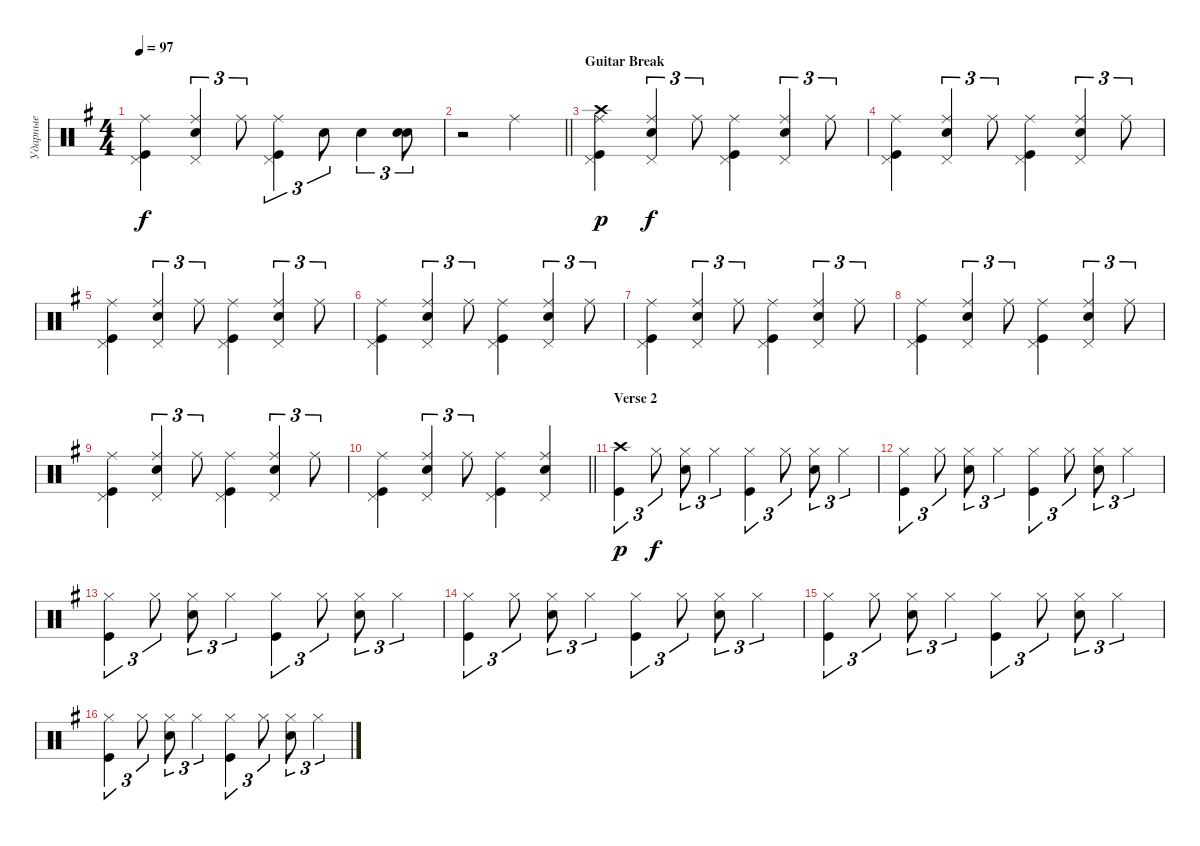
\track ("Ударные" "Ударные") {instrument percussion}
\staff {score}
\articulation defaults
\ts (4 4)
\tempo 97
\clef neutral
\ks eminor
("Kick (hit)" "Pedal Hi-Hat (hit)" "Ride (middle)").4{dy f} ("Snare (hit) 2" "Pedal Hi-Hat (hit)" "Ride (middle)").4{tu (3 2)} "Ride (middle)".8{tu (3 2)} ("Kick (hit)" "Pedal Hi-Hat (hit)" "Ride (middle)").4{tu (3 2)} "Snare (hit) 2".8{tu (3 2)} "Snare (hit) 2".4{tu (3 2)} ("Snare (hit) 2" "Snare (hit) 2").8{tu (3 2) bd 480} |
\barLineRight lightlight
r.2 "Ride (middle)".2 |
\section ("" "Guitar Break")
("Kick (hit)" "Ride (middle)" "Crash high (hit)" "Pedal Hi-Hat (hit)").4{dy p} ("Snare (hit) 2" "Pedal Hi-Hat (hit)" "Ride (middle)").4{tu (3 2) dy f} "Ride (middle)".8{tu (3 2)} ("Kick (hit)" "Pedal Hi-Hat (hit)" "Ride (middle)").4 ("Snare (hit) 2" "Ride (middle)" "Pedal Hi-Hat (hit)").4{tu (3 2)} "Ride (middle)".8{tu (3 2)} |
("Kick (hit)" "Ride (middle)" "Pedal Hi-Hat (hit)").4 ("Snare (hit) 2" "Ride (middle)" "Pedal Hi-Hat (hit)").4{tu (3 2)} "Ride (middle)".8{tu (3 2)} ("Kick (hit)" "Ride (middle)" "Pedal Hi-Hat (hit)").4 ("Snare (hit) 2" "Ride (middle)" "Pedal Hi-Hat (hit)").4{tu (3 2)} "Ride (middle)".8{tu (3 2)} |
("Kick (hit)" "Ride (middle)" "Pedal Hi-Hat (hit)").4 ("Snare (hit) 2" "Ride (middle)" "Pedal Hi-Hat (hit)").4{tu (3 2)} "Ride (middle)".8{tu (3 2)} ("Kick (hit)" "Ride (middle)" "Pedal Hi-Hat (hit)").4 ("Snare (hit) 2" "Ride (middle)" "Pedal Hi-Hat (hit)").4{tu (3 2)} "Ride (middle)".8{tu (3 2)} |
("Kick (hit)" "Ride (middle)" "Pedal Hi-Hat (hit)").4 ("Snare (hit) 2" "Ride (middle)" "Pedal Hi-Hat (hit)").4{tu (3 2)} "Ride (middle)".8{tu (3 2)} ("Kick (hit)" "Ride (middle)" "Pedal Hi-Hat (hit)").4 ("Snare (hit) 2" "Ride (middle)" "Pedal Hi-Hat (hit)").4{tu (3 2)} "Ride (middle)".8{tu (3 2)} |
("Kick (hit)" "Ride (middle)" "Pedal Hi-Hat (hit)").4 ("Snare (hit) 2" "Ride (middle)" "Pedal Hi-Hat (hit)").4{tu (3 2)} "Ride (middle)".8{tu (3 2)} ("Kick (hit)" "Ride (middle)" "Pedal Hi-Hat (hit)").4 ("Snare (hit) 2" "Ride (middle)" "Pedal Hi-Hat (hit)").4{tu (3 2)} "Ride (middle)".8{tu (3 2)} |
("Kick (hit)" "Ride (middle)" "Pedal Hi-Hat (hit)").4 ("Snare (hit) 2" "Ride (middle)" "Pedal Hi-Hat (hit)").4{tu (3 2)} "Ride (middle)".8{tu (3 2)} ("Kick (hit)" "Ride (middle)" "Pedal Hi-Hat (hit)").4 ("Snare (hit) 2" "Ride (middle)" "Pedal Hi-Hat (hit)").4{tu (3 2)} "Ride (middle)".8{tu (3 2)} |
("Kick (hit)" "Ride (middle)" "Pedal Hi-Hat (hit)").4 ("Snare (hit) 2" "Ride (middle)" "Pedal Hi-Hat (hit)").4{tu (3 2)} "Ride (middle)".8{tu (3 2)} ("Kick (hit)" "Ride (middle)" "Pedal Hi-Hat (hit)").4 ("Snare (hit) 2" "Ride (middle)" "Pedal Hi-Hat (hit)").4{tu (3 2)} "Ride (middle)".8{tu (3 2)} |
\barLineRight lightlight
("Kick (hit)" "Ride (middle)" "Pedal Hi-Hat (hit)").4 ("Snare (hit) 2" "Ride (middle)" "Pedal Hi-Hat (hit)").4{tu (3 2)} "Ride (middle)".8{tu (3 2)} ("Kick (hit)" "Ride (middle)" "Pedal Hi-Hat (hit)").4 ("Snare (hit) 2" "Ride (middle)" "Pedal Hi-Hat (hit)").4 |
\section ("" "Verse 2")
("Crash high (hit)" "Kick (hit)").4{tu (3 2) dy p} "Hi-Hat (closed)".8{tu (3 2) dy f} ("Hi-Hat (closed)" "Snare (hit) 2").8{tu (3 2)} "Hi-Hat (closed)".4{tu (3 2)} ("Hi-Hat (closed)" "Kick (hit)").4{tu (3 2)} "Hi-Hat (closed)".8{tu (3 2)} ("Hi-Hat (closed)" "Snare (hit) 2").8{tu (3 2)} "Hi-Hat (closed)".4{tu (3 2)} |
("Hi-Hat (closed)" "Kick (hit)").4{tu (3 2)} "Hi-Hat (closed)".8{tu (3 2)} ("Hi-Hat (closed)" "Snare (hit) 2").8{tu (3 2)} "Hi-Hat (closed)".4{tu (3 2)} ("Hi-Hat (closed)" "Kick (hit)").4{tu (3 2)} "Hi-Hat (closed)".8{tu (3 2)} ("Hi-Hat (closed)" "Snare (hit) 2").8{tu (3 2)} "Hi-Hat (closed)".4{tu (3 2)} |
("Hi-Hat (closed)" "Kick (hit)").4{tu (3 2)} "Hi-Hat (closed)".8{tu (3 2)} ("Hi-Hat (closed)" "Snare (hit) 2").8{tu (3 2)} "Hi-Hat (closed)".4{tu (3 2)} ("Hi-Hat (closed)" "Kick (hit)").4{tu (3 2)} "Hi-Hat (closed)".8{tu (3 2)} ("Hi-Hat (closed)" "Snare (hit) 2").8{tu (3 2)} "Hi-Hat (closed)".4{tu (3 2)} |
("Hi-Hat (closed)" "Kick (hit)").4{tu (3 2)} "Hi-Hat (closed)".8{tu (3 2)} ("Hi-Hat (closed)" "Snare (hit) 2").8{tu (3 2)} "Hi-Hat (closed)".4{tu (3 2)} ("Hi-Hat (closed)" "Kick (hit)").4{tu (3 2)} "Hi-Hat (closed)".8{tu (3 2)} ("Hi-Hat (closed)" "Snare (hit) 2").8{tu (3 2)} "Hi-Hat (closed)".4{tu (3 2)} |
("Hi-Hat (closed)" "Kick (hit)").4{tu (3 2)} "Hi-Hat (closed)".8{tu (3 2)} ("Hi-Hat (closed)" "Snare (hit) 2").8{tu (3 2)} "Hi-Hat (closed)".4{tu (3 2)} ("Hi-Hat (closed)" "Kick (hit)").4{tu (3 2)} "Hi-Hat (closed)".8{tu (3 2)} ("Hi-Hat (closed)" "Snare (hit) 2").8{tu (3 2)} "Hi-Hat (closed)".4{tu (3 2)} |
("Hi-Hat (closed)" "Kick (hit)").4{tu (3 2)} "Hi-Hat (closed)".8{tu (3 2)} ("Hi-Hat (closed)" "Snare (hit) 2").8{tu (3 2)} "Hi-Hat (closed)".4{tu (3 2)} ("Hi-Hat (closed)" "Kick (hit)").4{tu (3 2)} "Hi-Hat (closed)".8{tu (3 2)} ("Hi-Hat (closed)" "Snare (hit) 2").8{tu (3 2)} "Hi-Hat (closed)".4{tu (3 2)}
